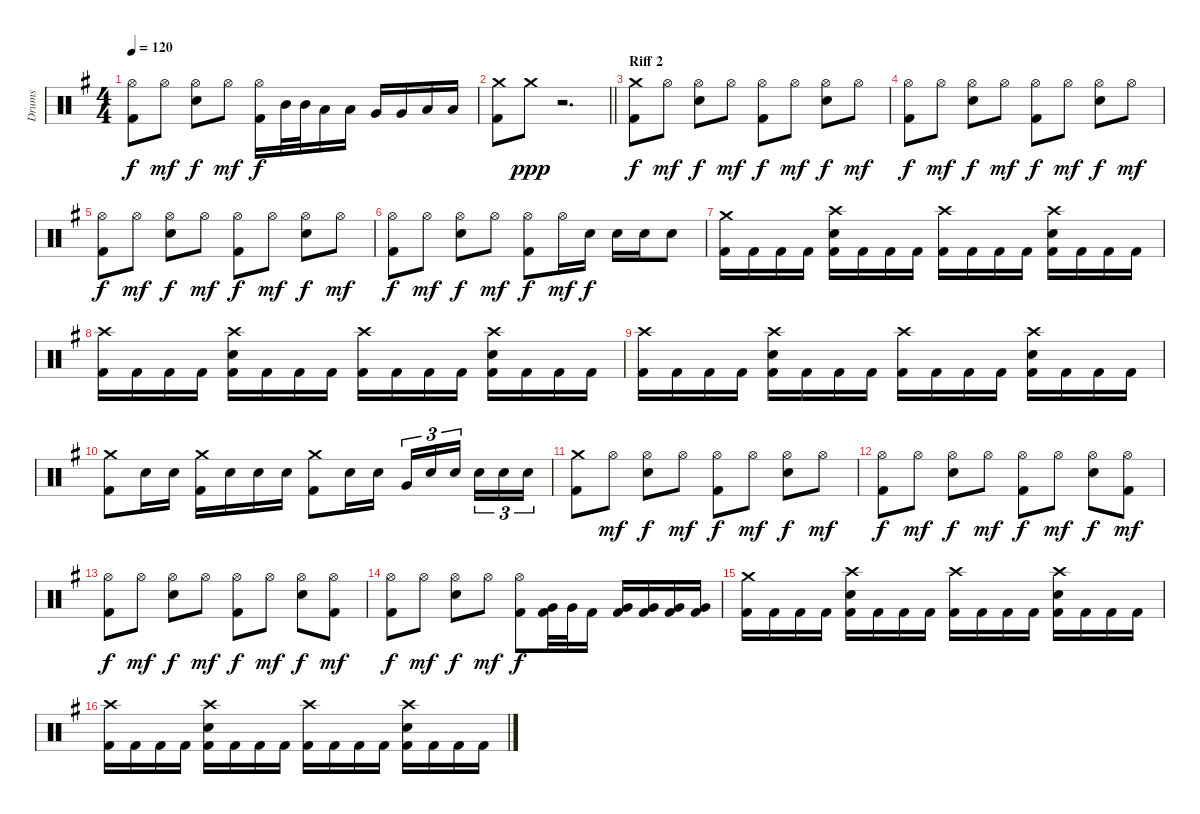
\track ("Drums" "Drums") {instrument percussion}
\staff {score}
\articulation defaults
\ts (4 4)
\tempo 120
\clef neutral
\ks eminor
("Kick (hit) 2" "Hi-Hat (open)").8{dy f} "Hi-Hat (open)".8{dy mf} ("Electric Snare (hit)" "Hi-Hat (open)").8{dy f} "Hi-Hat (open)".8{dy mf} ("Kick (hit) 2" "Hi-Hat (open)").16{dy f} "Mid Tom (hit)".32 "Mid Tom (hit)".32 "Low Tom (hit)".16 "Low Tom (hit)".16 "Very Low Tom (hit)".16 "Very Low Tom (hit)".16 "Low Floor Tom (hit)".16 "Low Floor Tom (hit)".16 |
\barLineRight lightlight
("Kick (hit) 2" "Crash medium (hit)").8 "Crash medium (hit)".8{dy ppp} r.2{d} |
\section ("" "Riff 2")
("Crash medium (hit)" "Kick (hit) 2").8{dy f} "Hi-Hat (open)".8{dy mf} ("Electric Snare (hit)" "Hi-Hat (open)").8{dy f} "Hi-Hat (open)".8{dy mf} ("Kick (hit) 2" "Hi-Hat (open)").8{dy f} "Hi-Hat (open)".8{dy mf} ("Electric Snare (hit)" "Hi-Hat (open)").8{dy f} "Hi-Hat (open)".8{dy mf} |
("Kick (hit) 2" "Hi-Hat (open)").8{dy f} "Hi-Hat (open)".8{dy mf} ("Electric Snare (hit)" "Hi-Hat (open)").8{dy f} "Hi-Hat (open)".8{dy mf} ("Kick (hit) 2" "Hi-Hat (open)").8{dy f} "Hi-Hat (open)".8{dy mf} ("Electric Snare (hit)" "Hi-Hat (open)").8{dy f} "Hi-Hat (open)".8{dy mf} |
("Hi-Hat (open)" "Kick (hit) 2").8{dy f} "Hi-Hat (open)".8{dy mf} ("Electric Snare (hit)" "Hi-Hat (open)").8{dy f} "Hi-Hat (open)".8{dy mf} ("Kick (hit) 2" "Hi-Hat (open)").8{dy f} "Hi-Hat (open)".8{dy mf} ("Electric Snare (hit)" "Hi-Hat (open)").8{dy f} "Hi-Hat (open)".8{dy mf} |
("Kick (hit) 2" "Hi-Hat (open)").8{dy f} "Hi-Hat (open)".8{dy mf} ("Electric Snare (hit)" "Hi-Hat (open)").8{dy f} "Hi-Hat (open)".8{dy mf} ("Kick (hit) 2" "Hi-Hat (open)").8{dy f} "Hi-Hat (open)".16{dy mf} "Electric Snare (hit)".16{dy f} "Electric Snare (hit)".16 "Electric Snare (hit)".16 "Electric Snare (hit)".8 |
("Kick (hit) 2" "Crash medium (hit)").16 "Kick (hit) 2".16 "Kick (hit) 2".16 "Kick (hit) 2".16 ("Kick (hit) 2" "Electric Snare (hit)" "Crash high (hit)").16 "Kick (hit) 2".16 "Kick (hit) 2".16 "Kick (hit) 2".16 ("Kick (hit) 2" "Crash high (hit)").16 "Kick (hit) 2".16 "Kick (hit) 2".16 "Kick (hit) 2".16 ("Kick (hit) 2" "Electric Snare (hit)" "Crash high (hit)").16 "Kick (hit) 2".16 "Kick (hit) 2".16 "Kick (hit) 2".16 |
("Kick (hit) 2" "Crash high (hit)").16 "Kick (hit) 2".16 "Kick (hit) 2".16 "Kick (hit) 2".16 ("Kick (hit) 2" "Electric Snare (hit)" "Crash high (hit)").16 "Kick (hit) 2".16 "Kick (hit) 2".16 "Kick (hit) 2".16 ("Kick (hit) 2" "Crash high (hit)").16 "Kick (hit) 2".16 "Kick (hit) 2".16 "Kick (hit) 2".16 ("Kick (hit) 2" "Electric Snare (hit)" "Crash high (hit)").16 "Kick (hit) 2".16 "Kick (hit) 2".16 "Kick (hit) 2".16 |
("Kick (hit) 2" "Crash high (hit)").16 "Kick (hit) 2".16 "Kick (hit) 2".16 "Kick (hit) 2".16 ("Kick (hit) 2" "Electric Snare (hit)" "Crash high (hit)").16 "Kick (hit) 2".16 "Kick (hit) 2".16 "Kick (hit) 2".16 ("Kick (hit) 2" "Crash high (hit)").16 "Kick (hit) 2".16 "Kick (hit) 2".16 "Kick (hit) 2".16 ("Kick (hit) 2" "Electric Snare (hit)" "Crash high (hit)").16 "Kick (hit) 2".16 "Kick (hit) 2".16 "Kick (hit) 2".16 |
("Kick (hit) 2" "Crash medium (hit)").8 "Electric Snare (hit)".16 "Electric Snare (hit)".16 ("Crash medium (hit)" "Kick (hit) 2").16 "Electric Snare (hit)".16 "Electric Snare (hit)".16 "Electric Snare (hit)".16 ("Kick (hit) 2" "Crash medium (hit)").8 "Electric Snare (hit)".16 "Electric Snare (hit)".16 "Very Low Tom (hit)".16{tu (3 2)} "Electric Snare (hit)".16{tu (3 2)} "Electric Snare (hit)".16{tu (3 2) beam splitsecondary} "Electric Snare (hit)".16{tu (3 2)} "Electric Snare (hit)".16{tu (3 2)} "Electric Snare (hit)".16{tu (3 2)} |
("Crash medium (hit)" "Kick (hit) 2").8 "Hi-Hat (open)".8{dy mf} ("Electric Snare (hit)" "Hi-Hat (open)").8{dy f} "Hi-Hat (open)".8{dy mf} ("Kick (hit) 2" "Hi-Hat (open)").8{dy f} "Hi-Hat (open)".8{dy mf} ("Electric Snare (hit)" "Hi-Hat (open)").8{dy f} "Hi-Hat (open)".8{dy mf} |
("Kick (hit) 2" "Hi-Hat (open)").8{dy f} "Hi-Hat (open)".8{dy mf} ("Electric Snare (hit)" "Hi-Hat (open)").8{dy f} "Hi-Hat (open)".8{dy mf} ("Kick (hit) 2" "Hi-Hat (open)").8{dy f} "Hi-Hat (open)".8{dy mf} ("Electric Snare (hit)" "Hi-Hat (open)").8{dy f} ("Hi-Hat (open)" "Kick (hit) 2").8{dy mf} |
("Hi-Hat (open)" "Kick (hit) 2").8{dy f} "Hi-Hat (open)".8{dy mf} ("Electric Snare (hit)" "Hi-Hat (open)").8{dy f} "Hi-Hat (open)".8{dy mf} ("Kick (hit) 2" "Hi-Hat (open)").8{dy f} "Hi-Hat (open)".8{dy mf} ("Electric Snare (hit)" "Hi-Hat (open)").8{dy f} ("Hi-Hat (open)" "Kick (hit) 2").8{dy mf} |
("Kick (hit) 2" "Hi-Hat (open)").8{dy f} "Hi-Hat (open)".8{dy mf} ("Electric Snare (hit)" "Hi-Hat (open)").8{dy f} "Hi-Hat (open)".8{dy mf} ("Kick (hit) 2" "Hi-Hat (open)").8{dy f} ("Very Low Tom (hit)" "Kick (hit) 2").32 "Very Low Tom (hit)".32 "Kick (hit) 2".16 ("Kick (hit) 2" "Very Low Tom (hit)").16 ("Kick (hit) 2" "Very Low Tom (hit)").16 ("Kick (hit) 2" "Very Low Tom (hit)").16 ("Kick (hit) 2" "Very Low Tom (hit)").16 |
("Kick (hit) 2" "Crash medium (hit)").16 "Kick (hit) 2".16 "Kick (hit) 2".16 "Kick (hit) 2".16 ("Kick (hit) 2" "Electric Snare (hit)" "Crash high (hit)").16 "Kick (hit) 2".16 "Kick (hit) 2".16 "Kick (hit) 2".16 ("Kick (hit) 2" "Crash high (hit)").16 "Kick (hit) 2".16 "Kick (hit) 2".16 "Kick (hit) 2".16 ("Kick (hit) 2" "Electric Snare (hit)" "Crash high (hit)").16 "Kick (hit) 2".16 "Kick (hit) 2".16 "Kick (hit) 2".16 |
("Kick (hit) 2" "Crash high (hit)").16 "Kick (hit) 2".16 "Kick (hit) 2".16 "Kick (hit) 2".16 ("Kick (hit) 2" "Electric Snare (hit)" "Crash high (hit)").16 "Kick (hit) 2".16 "Kick (hit) 2".16 "Kick (hit) 2".16 ("Kick (hit) 2" "Crash high (hit)").16 "Kick (hit) 2".16 "Kick (hit) 2".16 "Kick (hit) 2".16 ("Kick (hit) 2" "Electric Snare (hit)" "Crash high (hit)").16 "Kick (hit) 2".16 "Kick (hit) 2".16 "Kick (hit) 2".16
